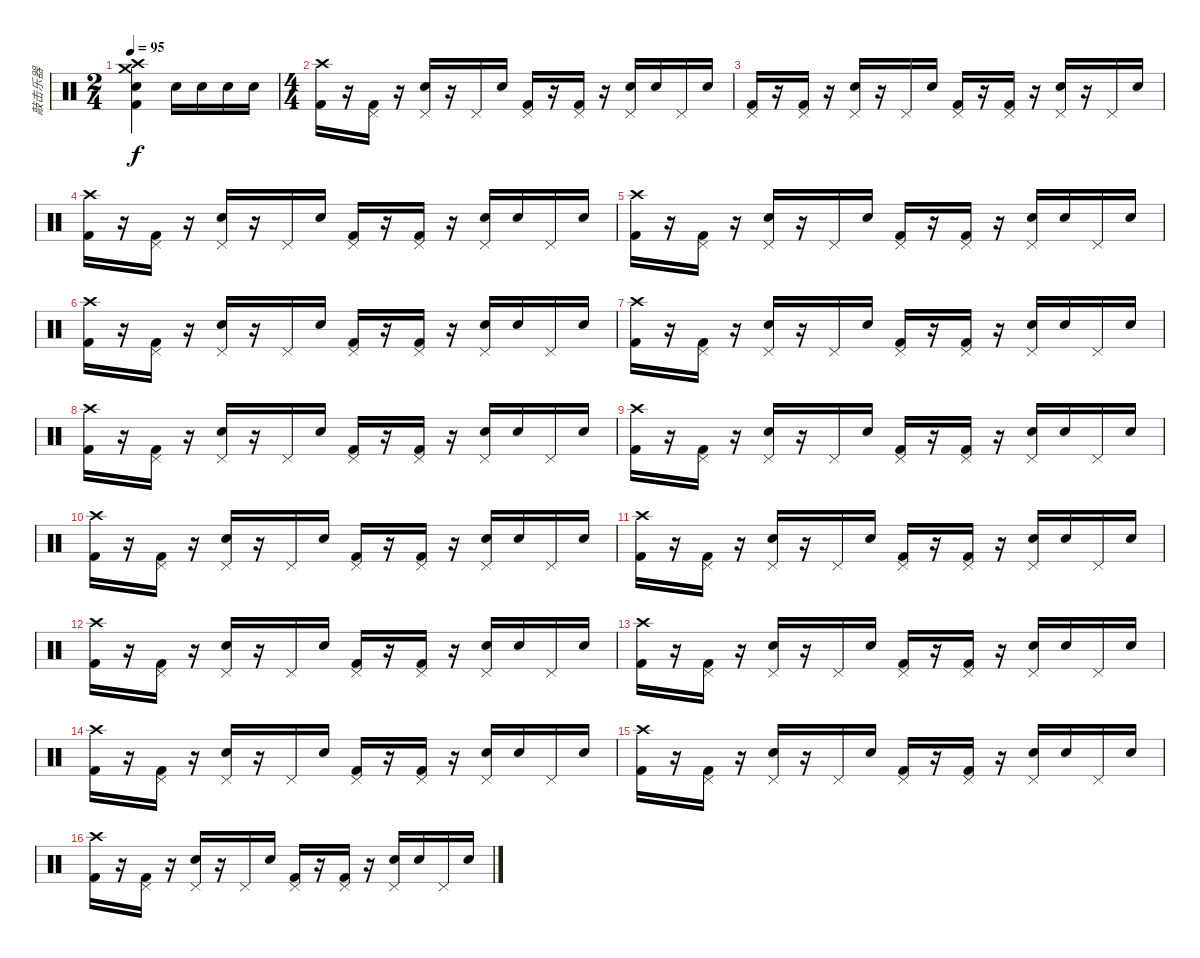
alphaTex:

\track ("敲击乐器" "敲击乐器") {instrument percussion}
\staff {score}
\articulation defaults
\ts (2 4)
\tempo 95
\clef neutral
\ks c
("Crash medium (hit)" "Crash high (hit)" "Electric Snare (hit)" "Kick (hit) 2").4{dy f} "Electric Snare (hit)".16 "Electric Snare (hit)".16 "Electric Snare (hit)".16 "Electric Snare (hit)".16 |
\ts (4 4)
("Crash high (hit)" "Kick (hit) 2").16 r.16 ("Pedal Hi-Hat (hit)" "Kick (hit) 2").16 r.16 ("Pedal Hi-Hat (hit)" "Electric Snare (hit)").16 r.16 "Pedal Hi-Hat (hit)".16 "Electric Snare (hit)".16 ("Pedal Hi-Hat (hit)" "Kick (hit) 2").16 r.16 ("Pedal Hi-Hat (hit)" "Kick (hit) 2").16 r.16 ("Pedal Hi-Hat (hit)" "Electric Snare (hit)").16 "Electric Snare (hit)".16 "Pedal Hi-Hat (hit)".16 "Electric Snare (hit)".16 |
("Pedal Hi-Hat (hit)" "Kick (hit) 2").16 r.16 ("Pedal Hi-Hat (hit)" "Kick (hit) 2").16 r.16 ("Pedal Hi-Hat (hit)" "Electric Snare (hit)").16 r.16 "Pedal Hi-Hat (hit)".16 "Electric Snare (hit)".16 ("Pedal Hi-Hat (hit)" "Kick (hit) 2").16 r.16 ("Pedal Hi-Hat (hit)" "Kick (hit) 2").16 r.16 ("Pedal Hi-Hat (hit)" "Electric Snare (hit)").16 r.16 "Pedal Hi-Hat (hit)".16 "Electric Snare (hit)".16 |
("Crash high (hit)" "Kick (hit) 2").16 r.16 ("Pedal Hi-Hat (hit)" "Kick (hit) 2").16 r.16 ("Pedal Hi-Hat (hit)" "Electric Snare (hit)").16 r.16 "Pedal Hi-Hat (hit)".16 "Electric Snare (hit)".16 ("Pedal Hi-Hat (hit)" "Kick (hit) 2").16 r.16 ("Pedal Hi-Hat (hit)" "Kick (hit) 2").16 r.16 ("Pedal Hi-Hat (hit)" "Electric Snare (hit)").16 "Electric Snare (hit)".16 "Pedal Hi-Hat (hit)".16 "Electric Snare (hit)".16 |
("Crash high (hit)" "Kick (hit) 2").16 r.16 ("Pedal Hi-Hat (hit)" "Kick (hit) 2").16 r.16 ("Pedal Hi-Hat (hit)" "Electric Snare (hit)").16 r.16 "Pedal Hi-Hat (hit)".16 "Electric Snare (hit)".16 ("Pedal Hi-Hat (hit)" "Kick (hit) 2").16 r.16 ("Pedal Hi-Hat (hit)" "Kick (hit) 2").16 r.16 ("Pedal Hi-Hat (hit)" "Electric Snare (hit)").16 "Electric Snare (hit)".16 "Pedal Hi-Hat (hit)".16 "Electric Snare (hit)".16 |
("Crash high (hit)" "Kick (hit) 2").16 r.16 ("Pedal Hi-Hat (hit)" "Kick (hit) 2").16 r.16 ("Pedal Hi-Hat (hit)" "Electric Snare (hit)").16 r.16 "Pedal Hi-Hat (hit)".16 "Electric Snare (hit)".16 ("Pedal Hi-Hat (hit)" "Kick (hit) 2").16 r.16 ("Pedal Hi-Hat (hit)" "Kick (hit) 2").16 r.16 ("Pedal Hi-Hat (hit)" "Electric Snare (hit)").16 "Electric Snare (hit)".16 "Pedal Hi-Hat (hit)".16 "Electric Snare (hit)".16 |
("Crash high (hit)" "Kick (hit) 2").16 r.16 ("Pedal Hi-Hat (hit)" "Kick (hit) 2").16 r.16 ("Pedal Hi-Hat (hit)" "Electric Snare (hit)").16 r.16 "Pedal Hi-Hat (hit)".16 "Electric Snare (hit)".16 ("Pedal Hi-Hat (hit)" "Kick (hit) 2").16 r.16 ("Pedal Hi-Hat (hit)" "Kick (hit) 2").16 r.16 ("Pedal Hi-Hat (hit)" "Electric Snare (hit)").16 "Electric Snare (hit)".16 "Pedal Hi-Hat (hit)".16 "Electric Snare (hit)".16 |
("Crash high (hit)" "Kick (hit) 2").16 r.16 ("Pedal Hi-Hat (hit)" "Kick (hit) 2").16 r.16 ("Pedal Hi-Hat (hit)" "Electric Snare (hit)").16 r.16 "Pedal Hi-Hat (hit)".16 "Electric Snare (hit)".16 ("Pedal Hi-Hat (hit)" "Kick (hit) 2").16 r.16 ("Pedal Hi-Hat (hit)" "Kick (hit) 2").16 r.16 ("Pedal Hi-Hat (hit)" "Electric Snare (hit)").16 "Electric Snare (hit)".16 "Pedal Hi-Hat (hit)".16 "Electric Snare (hit)".16 |
("Crash high (hit)" "Kick (hit) 2").16 r.16 ("Pedal Hi-Hat (hit)" "Kick (hit) 2").16 r.16 ("Pedal Hi-Hat (hit)" "Electric Snare (hit)").16 r.16 "Pedal Hi-Hat (hit)".16 "Electric Snare (hit)".16 ("Pedal Hi-Hat (hit)" "Kick (hit) 2").16 r.16 ("Pedal Hi-Hat (hit)" "Kick (hit) 2").16 r.16 ("Pedal Hi-Hat (hit)" "Electric Snare (hit)").16 "Electric Snare (hit)".16 "Pedal Hi-Hat (hit)".16 "Electric Snare (hit)".16 |
("Crash high (hit)" "Kick (hit) 2").16 r.16 ("Pedal Hi-Hat (hit)" "Kick (hit) 2").16 r.16 ("Pedal Hi-Hat (hit)" "Electric Snare (hit)").16 r.16 "Pedal Hi-Hat (hit)".16 "Electric Snare (hit)".16 ("Pedal Hi-Hat (hit)" "Kick (hit) 2").16 r.16 ("Pedal Hi-Hat (hit)" "Kick (hit) 2").16 r.16 ("Pedal Hi-Hat (hit)" "Electric Snare (hit)").16 "Electric Snare (hit)".16 "Pedal Hi-Hat (hit)".16 "Electric Snare (hit)".16 |
("Crash high (hit)" "Kick (hit) 2").16 r.16 ("Pedal Hi-Hat (hit)" "Kick (hit) 2").16 r.16 ("Pedal Hi-Hat (hit)" "Electric Snare (hit)").16 r.16 "Pedal Hi-Hat (hit)".16 "Electric Snare (hit)".16 ("Pedal Hi-Hat (hit)" "Kick (hit) 2").16 r.16 ("Pedal Hi-Hat (hit)" "Kick (hit) 2").16 r.16 ("Pedal Hi-Hat (hit)" "Electric Snare (hit)").16 "Electric Snare (hit)".16 "Pedal Hi-Hat (hit)".16 "Electric Snare (hit)".16 |
("Crash high (hit)" "Kick (hit) 2").16 r.16 ("Pedal Hi-Hat (hit)" "Kick (hit) 2").16 r.16 ("Pedal Hi-Hat (hit)" "Electric Snare (hit)").16 r.16 "Pedal Hi-Hat (hit)".16 "Electric Snare (hit)".16 ("Pedal Hi-Hat (hit)" "Kick (hit) 2").16 r.16 ("Pedal Hi-Hat (hit)" "Kick (hit) 2").16 r.16 ("Pedal Hi-Hat (hit)" "Electric Snare (hit)").16 "Electric Snare (hit)".16 "Pedal Hi-Hat (hit)".16 "Electric Snare (hit)".16 |
("Crash high (hit)" "Kick (hit) 2").16 r.16 ("Pedal Hi-Hat (hit)" "Kick (hit) 2").16 r.16 ("Pedal Hi-Hat (hit)" "Electric Snare (hit)").16 r.16 "Pedal Hi-Hat (hit)".16 "Electric Snare (hit)".16 ("Pedal Hi-Hat (hit)" "Kick (hit) 2").16 r.16 ("Pedal Hi-Hat (hit)" "Kick (hit) 2").16 r.16 ("Pedal Hi-Hat (hit)" "Electric Snare (hit)").16 "Electric Snare (hit)".16 "Pedal Hi-Hat (hit)".16 "Electric Snare (hit)".16 |
("Crash high (hit)" "Kick (hit) 2").16 r.16 ("Pedal Hi-Hat (hit)" "Kick (hit) 2").16 r.16 ("Pedal Hi-Hat (hit)" "Electric Snare (hit)").16 r.16 "Pedal Hi-Hat (hit)".16 "Electric Snare (hit)".16 ("Pedal Hi-Hat (hit)" "Kick (hit) 2").16 r.16 ("Pedal Hi-Hat (hit)" "Kick (hit) 2").16 r.16 ("Pedal Hi-Hat (hit)" "Electric Snare (hit)").16 "Electric Snare (hit)".16 "Pedal Hi-Hat (hit)".16 "Electric Snare (hit)".16 |
("Crash high (hit)" "Kick (hit) 2").16 r.16 ("Pedal Hi-Hat (hit)" "Kick (hit) 2").16 r.16 ("Pedal Hi-Hat (hit)" "Electric Snare (hit)").16 r.16 "Pedal Hi-Hat (hit)".16 "Electric Snare (hit)".16 ("Pedal Hi-Hat (hit)" "Kick (hit) 2").16 r.16 ("Pedal Hi-Hat (hit)" "Kick (hit) 2").16 r.16 ("Pedal Hi-Hat (hit)" "Electric Snare (hit)").16 "Electric Snare (hit)".16 "Pedal Hi-Hat (hit)".16 "Electric Snare (hit)".16 |
("Crash high (hit)" "Kick (hit) 2").16 r.16 ("Pedal Hi-Hat (hit)" "Kick (hit) 2").16 r.16 ("Pedal Hi-Hat (hit)" "Electric Snare (hit)").16 r.16 "Pedal Hi-Hat (hit)".16 "Electric Snare (hit)".16 ("Pedal Hi-Hat (hit)" "Kick (hit) 2").16 r.16 ("Pedal Hi-Hat (hit)" "Kick (hit) 2").16 r.16 ("Pedal Hi-Hat (hit)" "Electric Snare (hit)").16 "Electric Snare (hit)".16 "Pedal Hi-Hat (hit)".16 "Electric Snare (hit)".16
